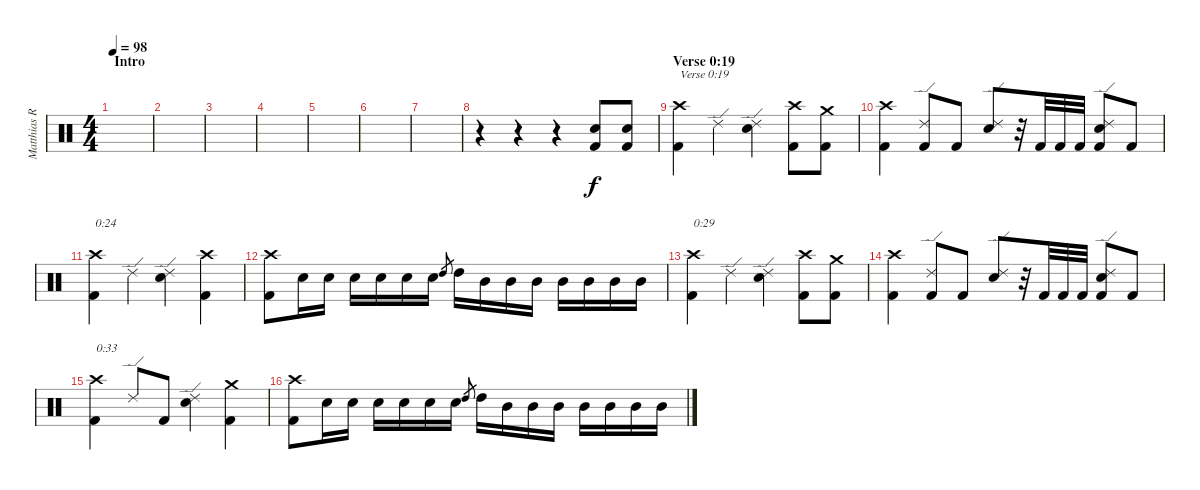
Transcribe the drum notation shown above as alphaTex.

\track ("Matthias R." "Matthias R") {instrument percussion}
\staff {score}
\articulation defaults
\ts (4 4)
\section ("" "Intro")
\tempo 98
\clef neutral
\ks c
|
|
|
|
|
|
|
r.4 r.4 r.4 ("Kick (hit) 2" "Electric Snare (hit)").8 ("Kick (hit) 2" "Electric Snare (hit)").8 |
\section ("" "Verse 0:19")
("Kick (hit) 2" "Crash high (hit)").4{txt "Verse 0:19"} "Ride (edge) 2".4 ("Electric Snare (hit)" "Ride (edge) 2").4 ("Kick (hit) 2" "Crash high (hit)").8 ("Kick (hit) 2" "Crash medium (hit)").8 |
("Kick (hit) 2" "Crash high (hit)").4 ("Kick (hit) 2" "Ride (edge) 2").8 "Kick (hit) 2".8 ("Electric Snare (hit)" "Ride (edge) 2").8 r.32 "Kick (hit) 2".32 "Kick (hit) 2".32 "Kick (hit) 2".32 ("Kick (hit) 2" "Electric Snare (hit)" "Ride (edge) 2").8 "Kick (hit) 2".8 |
("Kick (hit) 2" "Crash high (hit)").4{txt "0:24"} "Ride (edge) 2".4 ("Electric Snare (hit)" "Ride (edge) 2").4 ("Kick (hit) 2" "Crash high (hit)").4 |
("Kick (hit) 2" "Crash high (hit)").8 "Electric Snare (hit)".16 "Electric Snare (hit)".16 "Electric Snare (hit)".16 "Electric Snare (hit)".16 "Electric Snare (hit)".16 "Electric Snare (hit)".16 "High Tom (hit)".8{gr} "High Tom (hit)".16 "Mid Tom (hit)".16 "Mid Tom (hit)".16 "Mid Tom (hit)".16 "Mid Tom (hit)".16 "Mid Tom (hit)".16 "Mid Tom (hit)".16 "Mid Tom (hit)".16 |
("Kick (hit) 2" "Crash high (hit)").4{txt "0:29"} "Ride (edge) 2".4 ("Electric Snare (hit)" "Ride (edge) 2").4 ("Kick (hit) 2" "Crash high (hit)").8 ("Kick (hit) 2" "Crash medium (hit)").8 |
("Kick (hit) 2" "Crash high (hit)").4 ("Kick (hit) 2" "Ride (edge) 2").8 "Kick (hit) 2".8 ("Electric Snare (hit)" "Ride (edge) 2").8 r.32 "Kick (hit) 2".32 "Kick (hit) 2".32 "Kick (hit) 2".32 ("Kick (hit) 2" "Electric Snare (hit)" "Ride (edge) 2").8 "Kick (hit) 2".8 |
("Kick (hit) 2" "Crash high (hit)").4{txt "0:33"} "Ride (edge) 2".8 "Kick (hit) 2".8 ("Electric Snare (hit)" "Ride (edge) 2").4 ("Kick (hit) 2" "Crash medium (hit)").4 |
("Kick (hit) 2" "Crash high (hit)").8 "Electric Snare (hit)".16 "Electric Snare (hit)".16 "Electric Snare (hit)".16 "Electric Snare (hit)".16 "Electric Snare (hit)".16 "Electric Snare (hit)".16 "High Tom (hit)".8{gr} "High Tom (hit)".16 "Mid Tom (hit)".16 "Mid Tom (hit)".16 "Mid Tom (hit)".16 "Mid Tom (hit)".16 "Mid Tom (hit)".16 "Mid Tom (hit)".16 "Mid Tom (hit)".16
